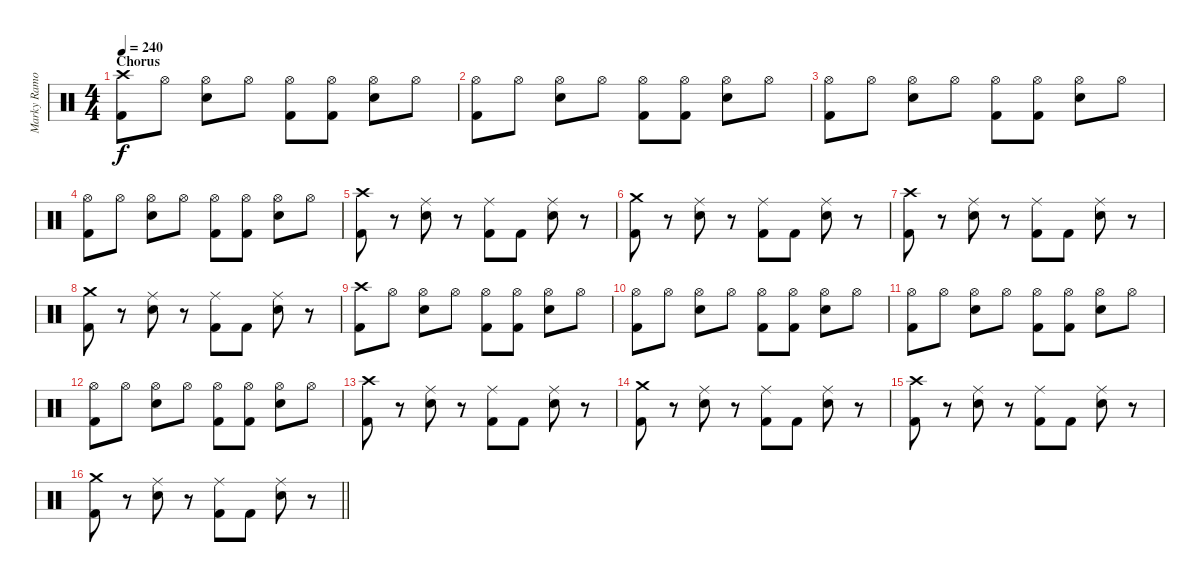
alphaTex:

\track ("Marky Ramone" "Marky Ramo") {instrument percussion}
\staff {score}
\articulation defaults
\ts (4 4)
\section ("" "Chorus")
\tempo 240
\clef neutral
\ks c
("Kick (hit) 2" "Crash high (hit)").8{dy f} "Hi-Hat (open)".8 ("Electric Snare (hit)" "Hi-Hat (open)").8 "Hi-Hat (open)".8 ("Kick (hit) 2" "Hi-Hat (open)").8 ("Kick (hit) 2" "Hi-Hat (open)").8 ("Electric Snare (hit)" "Hi-Hat (open)").8 "Hi-Hat (open)".8 |
("Kick (hit) 2" "Hi-Hat (open)").8 "Hi-Hat (open)".8 ("Electric Snare (hit)" "Hi-Hat (open)").8 "Hi-Hat (open)".8 ("Kick (hit) 2" "Hi-Hat (open)").8 ("Kick (hit) 2" "Hi-Hat (open)").8 ("Electric Snare (hit)" "Hi-Hat (open)").8 "Hi-Hat (open)".8 |
("Kick (hit) 2" "Hi-Hat (open)").8 "Hi-Hat (open)".8 ("Electric Snare (hit)" "Hi-Hat (open)").8 "Hi-Hat (open)".8 ("Kick (hit) 2" "Hi-Hat (open)").8 ("Kick (hit) 2" "Hi-Hat (open)").8 ("Electric Snare (hit)" "Hi-Hat (open)").8 "Hi-Hat (open)".8 |
("Kick (hit) 2" "Hi-Hat (open)").8 "Hi-Hat (open)".8 ("Electric Snare (hit)" "Hi-Hat (open)").8 "Hi-Hat (open)".8 ("Kick (hit) 2" "Hi-Hat (open)").8 ("Kick (hit) 2" "Hi-Hat (open)").8 ("Electric Snare (hit)" "Hi-Hat (open)").8 "Hi-Hat (open)".8 |
("Kick (hit) 2" "Crash high (hit)").8 r.8 ("Electric Snare (hit)" "Ride (middle)").8 r.8 ("Kick (hit) 2" "Ride (middle)").8 "Kick (hit) 2".8 ("Electric Snare (hit)" "Ride (middle)").8 r.8 |
("Kick (hit) 2" "Crash medium (hit)").8 r.8 ("Electric Snare (hit)" "Ride (middle)").8 r.8 ("Kick (hit) 2" "Ride (middle)").8 "Kick (hit) 2".8 ("Electric Snare (hit)" "Ride (middle)").8 r.8 |
("Kick (hit) 2" "Crash high (hit)").8 r.8 ("Electric Snare (hit)" "Ride (middle)").8 r.8 ("Kick (hit) 2" "Ride (middle)").8 "Kick (hit) 2".8 ("Electric Snare (hit)" "Ride (middle)").8 r.8 |
("Kick (hit) 2" "Crash medium (hit)").8 r.8 ("Electric Snare (hit)" "Ride (middle)").8 r.8 ("Kick (hit) 2" "Ride (middle)").8 "Kick (hit) 2".8 ("Electric Snare (hit)" "Ride (middle)").8 r.8 |
("Kick (hit) 2" "Crash high (hit)").8 "Hi-Hat (open)".8 ("Electric Snare (hit)" "Hi-Hat (open)").8 "Hi-Hat (open)".8 ("Kick (hit) 2" "Hi-Hat (open)").8 ("Kick (hit) 2" "Hi-Hat (open)").8 ("Electric Snare (hit)" "Hi-Hat (open)").8 "Hi-Hat (open)".8 |
("Kick (hit) 2" "Hi-Hat (open)").8 "Hi-Hat (open)".8 ("Electric Snare (hit)" "Hi-Hat (open)").8 "Hi-Hat (open)".8 ("Kick (hit) 2" "Hi-Hat (open)").8 ("Kick (hit) 2" "Hi-Hat (open)").8 ("Electric Snare (hit)" "Hi-Hat (open)").8 "Hi-Hat (open)".8 |
("Kick (hit) 2" "Hi-Hat (open)").8 "Hi-Hat (open)".8 ("Electric Snare (hit)" "Hi-Hat (open)").8 "Hi-Hat (open)".8 ("Kick (hit) 2" "Hi-Hat (open)").8 ("Kick (hit) 2" "Hi-Hat (open)").8 ("Electric Snare (hit)" "Hi-Hat (open)").8 "Hi-Hat (open)".8 |
("Kick (hit) 2" "Hi-Hat (open)").8 "Hi-Hat (open)".8 ("Electric Snare (hit)" "Hi-Hat (open)").8 "Hi-Hat (open)".8 ("Kick (hit) 2" "Hi-Hat (open)").8 ("Kick (hit) 2" "Hi-Hat (open)").8 ("Electric Snare (hit)" "Hi-Hat (open)").8 "Hi-Hat (open)".8 |
("Kick (hit) 2" "Crash high (hit)").8 r.8 ("Electric Snare (hit)" "Ride (middle)").8 r.8 ("Kick (hit) 2" "Ride (middle)").8 "Kick (hit) 2".8 ("Electric Snare (hit)" "Ride (middle)").8 r.8 |
("Kick (hit) 2" "Crash medium (hit)").8 r.8 ("Electric Snare (hit)" "Ride (middle)").8 r.8 ("Kick (hit) 2" "Ride (middle)").8 "Kick (hit) 2".8 ("Electric Snare (hit)" "Ride (middle)").8 r.8 |
("Kick (hit) 2" "Crash high (hit)").8 r.8 ("Electric Snare (hit)" "Ride (middle)").8 r.8 ("Kick (hit) 2" "Ride (middle)").8 "Kick (hit) 2".8 ("Electric Snare (hit)" "Ride (middle)").8 r.8 |
\barLineRight lightlight
("Kick (hit) 2" "Crash medium (hit)").8 r.8 ("Electric Snare (hit)" "Ride (middle)").8 r.8 ("Kick (hit) 2" "Ride (middle)").8 "Kick (hit) 2".8 ("Electric Snare (hit)" "Ride (middle)").8 r.8
